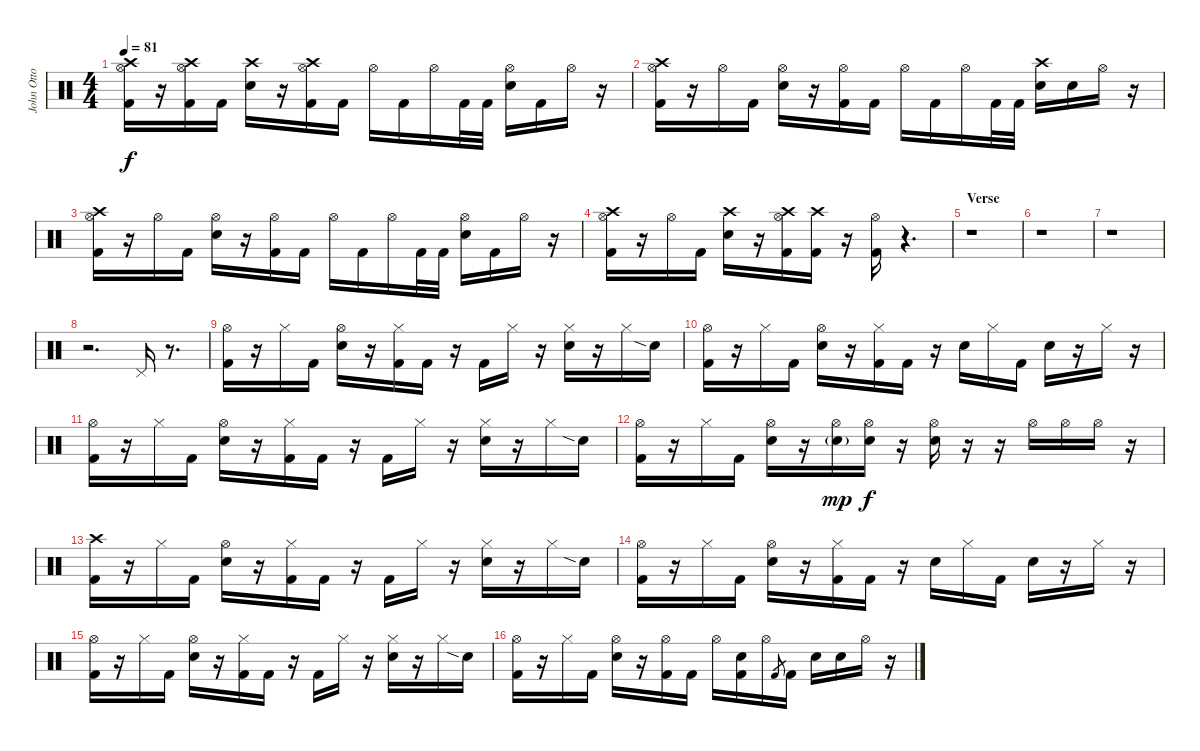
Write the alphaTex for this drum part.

\track ("John Otto" "John Otto") {instrument percussion}
\staff {score}
\articulation defaults
\ts (4 4)
\tempo 81
\clef neutral
\ks c
("Crash high (hit)" "Hi-Hat (open)" "Kick (hit) 2").16{dy f} r.16 ("Crash high (hit)" "Hi-Hat (open)" "Kick (hit) 2").16 "Kick (hit) 2".16 ("Crash high (hit)" "Snare (hit) 2").16 r.16 ("Crash high (hit)" "Hi-Hat (open)" "Kick (hit) 2").16 "Kick (hit) 2".16 "Hi-Hat (open)".16 "Kick (hit) 2".16 "Hi-Hat (open)".16 "Kick (hit) 2".32 "Kick (hit) 2".32 ("Hi-Hat (open)" "Snare (hit) 2").16 "Kick (hit) 2".16 "Hi-Hat (open)".16 r.16 |
("Crash high (hit)" "Hi-Hat (open)" "Kick (hit) 2").16 r.16 "Hi-Hat (open)".16 "Kick (hit) 2".16 ("Hi-Hat (open)" "Snare (hit) 2").16 r.16 ("Hi-Hat (open)" "Kick (hit) 2").16 "Kick (hit) 2".16 "Hi-Hat (open)".16 "Kick (hit) 2".16 "Hi-Hat (open)".16 "Kick (hit) 2".32 "Kick (hit) 2".32 ("Crash high (hit)" "Snare (hit) 2").16 "Snare (hit) 2".16 "Hi-Hat (open)".16 r.16 |
("Crash high (hit)" "Hi-Hat (open)" "Kick (hit) 2").16 r.16 "Hi-Hat (open)".16 "Kick (hit) 2".16 ("Hi-Hat (open)" "Snare (hit) 2").16 r.16 ("Hi-Hat (open)" "Kick (hit) 2").16 "Kick (hit) 2".16 "Hi-Hat (open)".16 "Kick (hit) 2".16 "Hi-Hat (open)".16 "Kick (hit) 2".32 "Kick (hit) 2".32 ("Hi-Hat (open)" "Snare (hit) 2").16 "Kick (hit) 2".16 "Hi-Hat (open)".16 r.16 |
("Crash high (hit)" "Hi-Hat (open)" "Kick (hit) 2").16 r.16 "Hi-Hat (open)".16 "Kick (hit) 2".16 ("Crash high (hit)" "Snare (hit) 2").16 r.16 ("Crash high (hit)" "Hi-Hat (open)" "Kick (hit) 2").16 ("Crash high (hit)" "Kick (hit) 2").16 r.16 ("Hi-Hat (open)" "Kick (hit) 2").16 r.4{d} |
\section ("" "Verse")
r.1 |
r.1 |
r.1 |
r.2{d} "Pedal Hi-Hat (hit)".16 r.8{d} |
("Hi-Hat (open)" "Kick (hit) 2").16 r.16 "Hi-Hat (closed)".16 "Kick (hit) 2".16 ("Hi-Hat (open)" "Snare (hit) 2").16 r.16 ("Hi-Hat (closed)" "Kick (hit) 2").16 "Kick (hit) 2".16 r.16 "Kick (hit) 2".16 "Hi-Hat (closed)".16 r.16 ("Hi-Hat (closed)" "Snare (hit) 2").16 r.16 "Hi-Hat (closed)".16 "Snare (hit) 2"{sia}.16 |
("Hi-Hat (open)" "Kick (hit) 2").16 r.16 "Hi-Hat (closed)".16 "Kick (hit) 2".16 ("Hi-Hat (open)" "Snare (hit) 2").16 r.16 ("Hi-Hat (closed)" "Kick (hit) 2").16 "Kick (hit) 2".16 r.16 "Snare (hit) 2".16 "Hi-Hat (closed)".16 "Kick (hit) 2".16 "Snare (hit) 2".16 r.16 "Hi-Hat (closed)".16 r.16 |
("Hi-Hat (open)" "Kick (hit) 2").16 r.16 "Hi-Hat (closed)".16 "Kick (hit) 2".16 ("Hi-Hat (open)" "Snare (hit) 2").16 r.16 ("Hi-Hat (closed)" "Kick (hit) 2").16 "Kick (hit) 2".16 r.16 "Kick (hit) 2".16 "Hi-Hat (closed)".16 r.16 ("Hi-Hat (closed)" "Snare (hit) 2").16 r.16 "Hi-Hat (closed)".16 "Snare (hit) 2"{sia}.16 |
("Hi-Hat (open)" "Kick (hit) 2").16 r.16 "Hi-Hat (closed)".16 "Kick (hit) 2".16 ("Hi-Hat (open)" "Snare (hit) 2").16 r.16 ("Hi-Hat (open)" "Snare (hit) 2"{g}).16{dy mp} ("Hi-Hat (open)" "Snare (hit) 2").16{dy f} r.16 ("Hi-Hat (open)" "Snare (hit) 2").16 r.16 r.16 "Hi-Hat (open)".16 "Hi-Hat (open)".16 "Hi-Hat (open)".16 r.16 |
("Crash high (hit)" "Kick (hit) 2").16 r.16 "Hi-Hat (closed)".16 "Kick (hit) 2".16 ("Hi-Hat (open)" "Snare (hit) 2").16 r.16 ("Hi-Hat (closed)" "Kick (hit) 2").16 "Kick (hit) 2".16 r.16 "Kick (hit) 2".16 "Hi-Hat (closed)".16 r.16 ("Hi-Hat (closed)" "Snare (hit) 2").16 r.16 "Hi-Hat (closed)".16 "Snare (hit) 2"{sia}.16 |
("Hi-Hat (open)" "Kick (hit) 2").16 r.16 "Hi-Hat (closed)".16 "Kick (hit) 2".16 ("Hi-Hat (open)" "Snare (hit) 2").16 r.16 ("Hi-Hat (closed)" "Kick (hit) 2").16 "Kick (hit) 2".16 r.16 "Snare (hit) 2".16 "Hi-Hat (closed)".16 "Kick (hit) 2".16 "Snare (hit) 2".16 r.16 "Hi-Hat (closed)".16 r.16 |
("Hi-Hat (open)" "Kick (hit) 2").16 r.16 "Hi-Hat (closed)".16 "Kick (hit) 2".16 ("Hi-Hat (open)" "Snare (hit) 2").16 r.16 ("Hi-Hat (closed)" "Kick (hit) 2").16 "Kick (hit) 2".16 r.16 "Kick (hit) 2".16 "Hi-Hat (closed)".16 r.16 ("Hi-Hat (closed)" "Snare (hit) 2").16 r.16 "Hi-Hat (closed)".16 "Snare (hit) 2"{sia}.16 |
("Hi-Hat (open)" "Kick (hit) 2").16 r.16 "Hi-Hat (closed)".16 "Kick (hit) 2".16 ("Hi-Hat (open)" "Snare (hit) 2").16 r.16 ("Hi-Hat (open)" "Kick (hit) 2").16 "Kick (hit) 2".16 "Hi-Hat (open)".16 ("Snare (hit) 2" "Kick (hit) 2").16 "Hi-Hat (open)".16 "Kick (hit) 2".8{gr} "Kick (hit) 2".16 "Snare (hit) 2".16 "Snare (hit) 2".16 "Hi-Hat (open)".16 r.16
